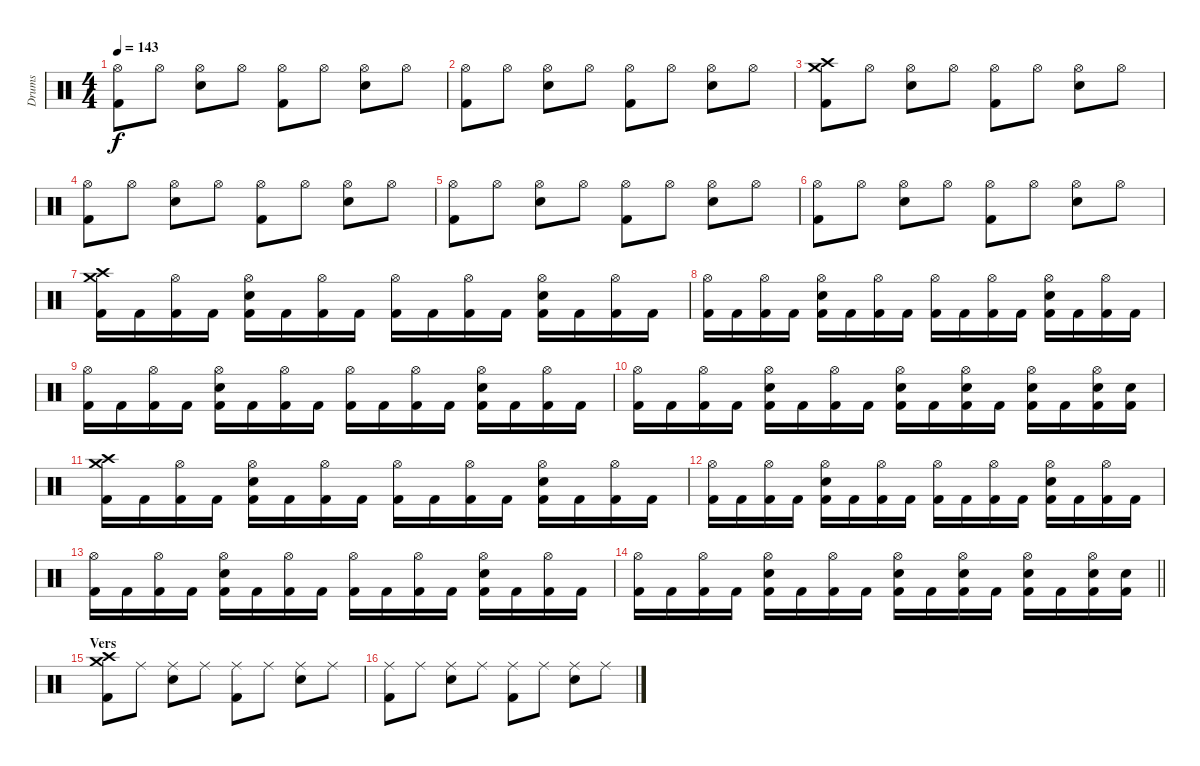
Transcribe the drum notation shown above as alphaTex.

\track ("Drums" "Drums") {instrument percussion}
\staff {score}
\articulation defaults
\ts (4 4)
\tempo 143
\clef neutral
\ks c
("Hi-Hat (open)" "Kick (hit) 2").8{dy f} "Hi-Hat (open)".8 ("Hi-Hat (open)" "Snare (hit) 2").8 "Hi-Hat (open)".8 ("Hi-Hat (open)" "Kick (hit) 2").8 "Hi-Hat (open)".8 ("Hi-Hat (open)" "Snare (hit) 2").8 "Hi-Hat (open)".8 |
("Hi-Hat (open)" "Kick (hit) 2").8 "Hi-Hat (open)".8 ("Hi-Hat (open)" "Snare (hit) 2").8 "Hi-Hat (open)".8 ("Hi-Hat (open)" "Kick (hit) 2").8 "Hi-Hat (open)".8 ("Hi-Hat (open)" "Snare (hit) 2").8 "Hi-Hat (open)".8 |
("Crash medium (hit)" "Crash high (hit)" "Kick (hit) 2").8 "Hi-Hat (open)".8 ("Hi-Hat (open)" "Snare (hit) 2").8 "Hi-Hat (open)".8 ("Hi-Hat (open)" "Kick (hit) 2").8 "Hi-Hat (open)".8 ("Hi-Hat (open)" "Snare (hit) 2").8 "Hi-Hat (open)".8 |
("Hi-Hat (open)" "Kick (hit) 2").8 "Hi-Hat (open)".8 ("Hi-Hat (open)" "Snare (hit) 2").8 "Hi-Hat (open)".8 ("Hi-Hat (open)" "Kick (hit) 2").8 "Hi-Hat (open)".8 ("Hi-Hat (open)" "Snare (hit) 2").8 "Hi-Hat (open)".8 |
("Hi-Hat (open)" "Kick (hit) 2").8 "Hi-Hat (open)".8 ("Hi-Hat (open)" "Snare (hit) 2").8 "Hi-Hat (open)".8 ("Hi-Hat (open)" "Kick (hit) 2").8 "Hi-Hat (open)".8 ("Hi-Hat (open)" "Snare (hit) 2").8 "Hi-Hat (open)".8 |
("Hi-Hat (open)" "Kick (hit) 2").8 "Hi-Hat (open)".8 ("Hi-Hat (open)" "Snare (hit) 2").8 "Hi-Hat (open)".8 ("Hi-Hat (open)" "Kick (hit) 2").8 "Hi-Hat (open)".8 ("Hi-Hat (open)" "Snare (hit) 2").8 "Hi-Hat (open)".8 |
("Crash medium (hit)" "Crash high (hit)" "Kick (hit) 2").16 "Kick (hit) 2".16 ("Hi-Hat (open)" "Kick (hit) 2").16 "Kick (hit) 2".16 ("Hi-Hat (open)" "Snare (hit) 2" "Kick (hit) 2").16 "Kick (hit) 2".16 ("Hi-Hat (open)" "Kick (hit) 2").16 "Kick (hit) 2".16 ("Hi-Hat (open)" "Kick (hit) 2").16 "Kick (hit) 2".16 ("Hi-Hat (open)" "Kick (hit) 2").16 "Kick (hit) 2".16 ("Hi-Hat (open)" "Snare (hit) 2" "Kick (hit) 2").16 "Kick (hit) 2".16 ("Hi-Hat (open)" "Kick (hit) 2").16 "Kick (hit) 2".16 |
("Hi-Hat (open)" "Kick (hit) 2").16 "Kick (hit) 2".16 ("Hi-Hat (open)" "Kick (hit) 2").16 "Kick (hit) 2".16 ("Hi-Hat (open)" "Snare (hit) 2" "Kick (hit) 2").16 "Kick (hit) 2".16 ("Hi-Hat (open)" "Kick (hit) 2").16 "Kick (hit) 2".16 ("Hi-Hat (open)" "Kick (hit) 2").16 "Kick (hit) 2".16 ("Hi-Hat (open)" "Kick (hit) 2").16 "Kick (hit) 2".16 ("Hi-Hat (open)" "Snare (hit) 2" "Kick (hit) 2").16 "Kick (hit) 2".16 ("Hi-Hat (open)" "Kick (hit) 2").16 "Kick (hit) 2".16 |
("Hi-Hat (open)" "Kick (hit) 2").16 "Kick (hit) 2".16 ("Hi-Hat (open)" "Kick (hit) 2").16 "Kick (hit) 2".16 ("Hi-Hat (open)" "Snare (hit) 2" "Kick (hit) 2").16 "Kick (hit) 2".16 ("Hi-Hat (open)" "Kick (hit) 2").16 "Kick (hit) 2".16 ("Hi-Hat (open)" "Kick (hit) 2").16 "Kick (hit) 2".16 ("Hi-Hat (open)" "Kick (hit) 2").16 "Kick (hit) 2".16 ("Hi-Hat (open)" "Snare (hit) 2" "Kick (hit) 2").16 "Kick (hit) 2".16 ("Hi-Hat (open)" "Kick (hit) 2").16 "Kick (hit) 2".16 |
("Hi-Hat (open)" "Kick (hit) 2").16 "Kick (hit) 2".16 ("Hi-Hat (open)" "Kick (hit) 2").16 "Kick (hit) 2".16 ("Hi-Hat (open)" "Snare (hit) 2" "Kick (hit) 2").16 "Kick (hit) 2".16 ("Hi-Hat (open)" "Kick (hit) 2").16 "Kick (hit) 2".16 ("Hi-Hat (open)" "Snare (hit) 2" "Kick (hit) 2").16 "Kick (hit) 2".16 ("Hi-Hat (open)" "Snare (hit) 2" "Kick (hit) 2").16 "Kick (hit) 2".16 ("Hi-Hat (open)" "Snare (hit) 2" "Kick (hit) 2").16 "Kick (hit) 2".16 ("Hi-Hat (open)" "Snare (hit) 2" "Kick (hit) 2").16 ("Snare (hit) 2" "Kick (hit) 2").16 |
("Crash medium (hit)" "Crash high (hit)" "Kick (hit) 2").16 "Kick (hit) 2".16 ("Hi-Hat (open)" "Kick (hit) 2").16 "Kick (hit) 2".16 ("Hi-Hat (open)" "Snare (hit) 2" "Kick (hit) 2").16 "Kick (hit) 2".16 ("Hi-Hat (open)" "Kick (hit) 2").16 "Kick (hit) 2".16 ("Hi-Hat (open)" "Kick (hit) 2").16 "Kick (hit) 2".16 ("Hi-Hat (open)" "Kick (hit) 2").16 "Kick (hit) 2".16 ("Hi-Hat (open)" "Snare (hit) 2" "Kick (hit) 2").16 "Kick (hit) 2".16 ("Hi-Hat (open)" "Kick (hit) 2").16 "Kick (hit) 2".16 |
("Hi-Hat (open)" "Kick (hit) 2").16 "Kick (hit) 2".16 ("Hi-Hat (open)" "Kick (hit) 2").16 "Kick (hit) 2".16 ("Hi-Hat (open)" "Snare (hit) 2" "Kick (hit) 2").16 "Kick (hit) 2".16 ("Hi-Hat (open)" "Kick (hit) 2").16 "Kick (hit) 2".16 ("Hi-Hat (open)" "Kick (hit) 2").16 "Kick (hit) 2".16 ("Hi-Hat (open)" "Kick (hit) 2").16 "Kick (hit) 2".16 ("Hi-Hat (open)" "Snare (hit) 2" "Kick (hit) 2").16 "Kick (hit) 2".16 ("Hi-Hat (open)" "Kick (hit) 2").16 "Kick (hit) 2".16 |
("Hi-Hat (open)" "Kick (hit) 2").16 "Kick (hit) 2".16 ("Hi-Hat (open)" "Kick (hit) 2").16 "Kick (hit) 2".16 ("Hi-Hat (open)" "Snare (hit) 2" "Kick (hit) 2").16 "Kick (hit) 2".16 ("Hi-Hat (open)" "Kick (hit) 2").16 "Kick (hit) 2".16 ("Hi-Hat (open)" "Kick (hit) 2").16 "Kick (hit) 2".16 ("Hi-Hat (open)" "Kick (hit) 2").16 "Kick (hit) 2".16 ("Hi-Hat (open)" "Snare (hit) 2" "Kick (hit) 2").16 "Kick (hit) 2".16 ("Hi-Hat (open)" "Kick (hit) 2").16 "Kick (hit) 2".16 |
\barLineRight lightlight
("Hi-Hat (open)" "Kick (hit) 2").16 "Kick (hit) 2".16 ("Hi-Hat (open)" "Kick (hit) 2").16 "Kick (hit) 2".16 ("Hi-Hat (open)" "Snare (hit) 2" "Kick (hit) 2").16 "Kick (hit) 2".16 ("Hi-Hat (open)" "Kick (hit) 2").16 "Kick (hit) 2".16 ("Hi-Hat (open)" "Snare (hit) 2" "Kick (hit) 2").16 "Kick (hit) 2".16 ("Hi-Hat (open)" "Snare (hit) 2" "Kick (hit) 2").16 "Kick (hit) 2".16 ("Hi-Hat (open)" "Snare (hit) 2" "Kick (hit) 2").16 "Kick (hit) 2".16 ("Hi-Hat (open)" "Snare (hit) 2" "Kick (hit) 2").16 ("Snare (hit) 2" "Kick (hit) 2").16 |
\section ("" "Vers")
("Crash medium (hit)" "Crash high (hit)" "Kick (hit) 2").8 "Ride (middle)".8 ("Ride (middle)" "Snare (hit) 2").8 "Ride (middle)".8 ("Ride (middle)" "Kick (hit) 2").8 "Ride (middle)".8 ("Ride (middle)" "Snare (hit) 2").8 "Ride (middle)".8 |
("Ride (middle)" "Kick (hit) 2").8 "Ride (middle)".8 ("Ride (middle)" "Snare (hit) 2").8 "Ride (middle)".8 ("Ride (middle)" "Kick (hit) 2").8 "Ride (middle)".8 ("Ride (middle)" "Snare (hit) 2").8 "Ride (middle)".8
